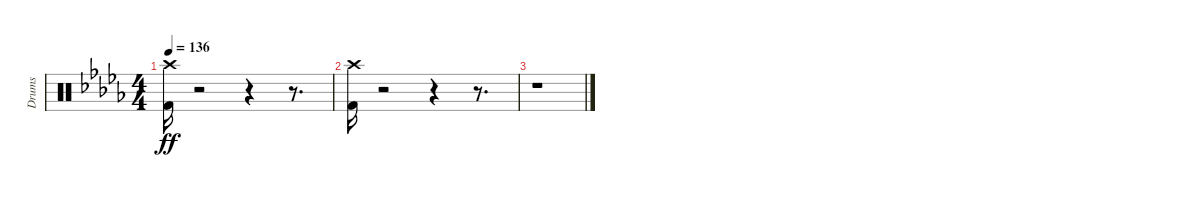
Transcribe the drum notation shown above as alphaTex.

\track ("Drums" "Drums") {instrument percussion}
\staff {score}
\articulation defaults
\ts (4 4)
\tempo 136
\clef neutral
\ks db
("Kick (hit) 2" "Crash high (hit)").16{dy ff} r.2 r.4 r.8{d} |
("Kick (hit) 2" "Crash high (hit)").16 r.2 r.4 r.8{d} |
r.1
